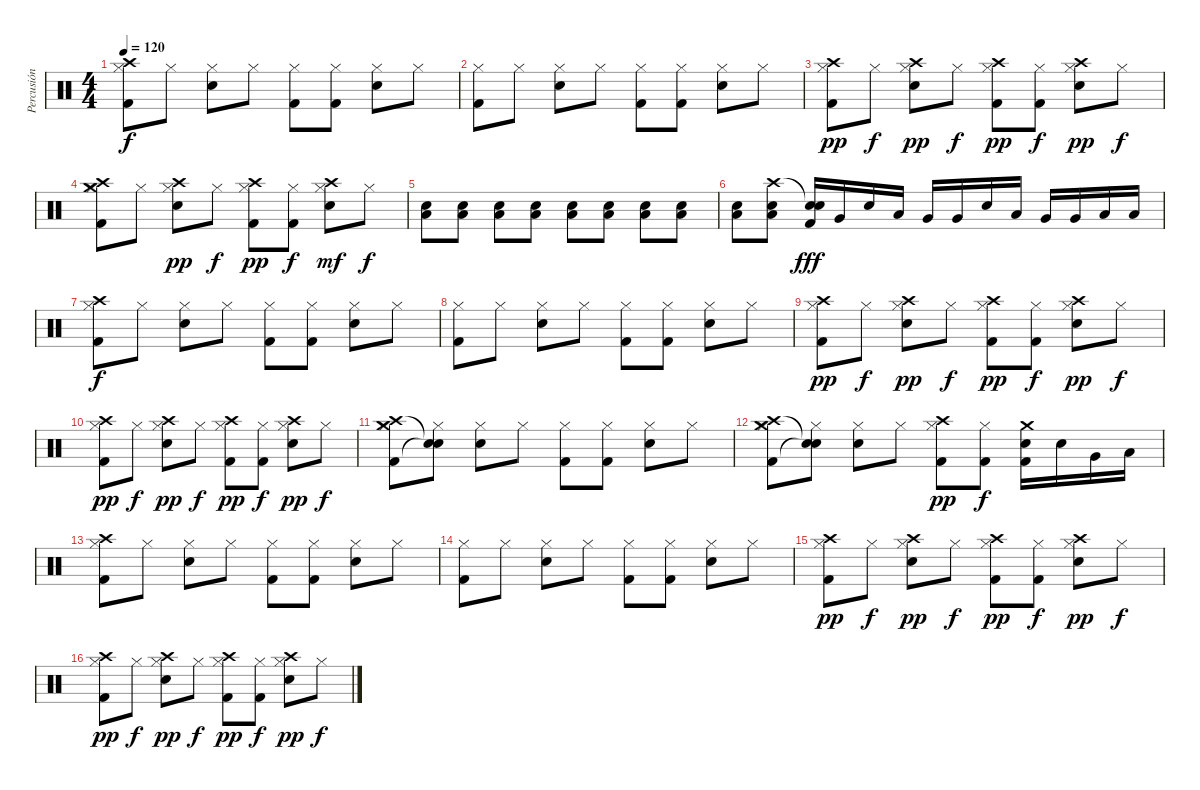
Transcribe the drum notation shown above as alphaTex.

\track ("Percusión" "Percusión") {instrument percussion}
\staff {score}
\articulation defaults
\ts (4 4)
\tempo 120
\clef neutral
\ks c
("Hi-Hat (closed)" "Kick (hit) 2" "Crash high (hit)").8{dy f} "Hi-Hat (closed)".8 ("Hi-Hat (closed)" "Electric Snare (hit)").8 "Hi-Hat (closed)".8 ("Hi-Hat (closed)" "Kick (hit) 2").8 ("Hi-Hat (closed)" "Kick (hit) 2").8 ("Hi-Hat (closed)" "Electric Snare (hit)").8 "Hi-Hat (closed)".8 |
("Hi-Hat (closed)" "Kick (hit) 2").8 "Hi-Hat (closed)".8 ("Hi-Hat (closed)" "Electric Snare (hit)").8 "Hi-Hat (closed)".8 ("Hi-Hat (closed)" "Kick (hit) 2").8 ("Hi-Hat (closed)" "Kick (hit) 2").8 ("Hi-Hat (closed)" "Electric Snare (hit)").8 "Hi-Hat (closed)".8 |
("Hi-Hat (closed)" "Kick (hit) 2" "Crash high (hit)").8{dy pp} "Hi-Hat (closed)".8{dy f} ("Hi-Hat (closed)" "Electric Snare (hit)" "Crash high (hit)").8{dy pp} "Hi-Hat (closed)".8{dy f} ("Hi-Hat (closed)" "Kick (hit) 2" "Crash high (hit)").8{dy pp} ("Hi-Hat (closed)" "Kick (hit) 2").8{dy f} ("Hi-Hat (closed)" "Electric Snare (hit)" "Crash high (hit)").8{dy pp} "Hi-Hat (closed)".8{dy f} |
("Hi-Hat (closed)" "Kick (hit) 2" "Crash high (hit)" "Crash medium (hit)").8 "Hi-Hat (closed)".8 ("Hi-Hat (closed)" "Electric Snare (hit)" "Crash high (hit)").8{dy pp} "Hi-Hat (closed)".8{dy f} ("Hi-Hat (closed)" "Kick (hit) 2" "Crash high (hit)").8{dy pp} ("Hi-Hat (closed)" "Kick (hit) 2").8{dy f} ("Hi-Hat (closed)" "Electric Snare (hit)" "Crash high (hit)").8{dy mf} "Hi-Hat (closed)".8{dy f} |
("Low Floor Tom (hit)" "Electric Snare (hit)").8 ("Low Floor Tom (hit)" "Electric Snare (hit)").8 ("Low Floor Tom (hit)" "Electric Snare (hit)").8 ("Low Floor Tom (hit)" "Electric Snare (hit)").8 ("Low Floor Tom (hit)" "Electric Snare (hit)").8 ("Low Floor Tom (hit)" "Electric Snare (hit)").8 ("Low Floor Tom (hit)" "Electric Snare (hit)").8 ("Low Floor Tom (hit)" "Electric Snare (hit)").8 |
("Low Floor Tom (hit)" "Electric Snare (hit)").8 ("Low Floor Tom (hit)" "Electric Snare (hit)" "Crash high (hit)").8 ("Electric Snare (hit)" "Kick (hit) 2" "Snare (hit)"{t}).16{dy fff} "Very Low Tom (hit)".16 "Electric Snare (hit)".16 "Low Floor Tom (hit)".16 "Very Low Tom (hit)".16 "Very Low Tom (hit)".16 "Electric Snare (hit)".16 "Low Floor Tom (hit)".16 "Very Low Tom (hit)".16 "Very Low Tom (hit)".16 "Low Floor Tom (hit)".16 "Low Tom (hit)".16 |
("Hi-Hat (closed)" "Kick (hit) 2" "Crash high (hit)").8{dy f} "Hi-Hat (closed)".8 ("Hi-Hat (closed)" "Electric Snare (hit)").8 "Hi-Hat (closed)".8 ("Hi-Hat (closed)" "Kick (hit) 2").8 ("Hi-Hat (closed)" "Kick (hit) 2").8 ("Hi-Hat (closed)" "Electric Snare (hit)").8 "Hi-Hat (closed)".8 |
("Hi-Hat (closed)" "Kick (hit) 2").8 "Hi-Hat (closed)".8 ("Hi-Hat (closed)" "Electric Snare (hit)").8 "Hi-Hat (closed)".8 ("Hi-Hat (closed)" "Kick (hit) 2").8 ("Hi-Hat (closed)" "Kick (hit) 2").8 ("Hi-Hat (closed)" "Electric Snare (hit)").8 "Hi-Hat (closed)".8 |
("Hi-Hat (closed)" "Kick (hit) 2" "Crash high (hit)").8{dy pp} "Hi-Hat (closed)".8{dy f} ("Hi-Hat (closed)" "Electric Snare (hit)" "Crash high (hit)").8{dy pp} "Hi-Hat (closed)".8{dy f} ("Hi-Hat (closed)" "Kick (hit) 2" "Crash high (hit)").8{dy pp} ("Hi-Hat (closed)" "Kick (hit) 2").8{dy f} ("Hi-Hat (closed)" "Electric Snare (hit)" "Crash high (hit)").8{dy pp} "Hi-Hat (closed)".8{dy f} |
("Hi-Hat (closed)" "Kick (hit) 2" "Crash high (hit)").8{dy pp} "Hi-Hat (closed)".8{dy f} ("Hi-Hat (closed)" "Electric Snare (hit)" "Crash high (hit)").8{dy pp} "Hi-Hat (closed)".8{dy f} ("Hi-Hat (closed)" "Kick (hit) 2" "Crash high (hit)").8{dy pp} ("Hi-Hat (closed)" "Kick (hit) 2").8{dy f} ("Hi-Hat (closed)" "Electric Snare (hit)" "Crash high (hit)").8{dy pp} "Hi-Hat (closed)".8{dy f} |
("Hi-Hat (closed)" "Kick (hit) 2" "Crash high (hit)" "Crash medium (hit)").8 ("Hi-Hat (closed)" "Snare (hit)"{t} "Snare (hit)"{t}).8 ("Hi-Hat (closed)" "Electric Snare (hit)").8 "Hi-Hat (closed)".8 ("Hi-Hat (closed)" "Kick (hit) 2").8 ("Hi-Hat (closed)" "Kick (hit) 2").8 ("Hi-Hat (closed)" "Electric Snare (hit)").8 "Hi-Hat (closed)".8 |
("Hi-Hat (closed)" "Kick (hit) 2" "Crash high (hit)" "Crash medium (hit)").8 ("Hi-Hat (closed)" "Snare (hit)"{t} "Snare (hit)"{t}).8 ("Hi-Hat (closed)" "Electric Snare (hit)").8 "Hi-Hat (closed)".8 ("Hi-Hat (closed)" "Kick (hit) 2" "Crash high (hit)").8{dy pp} ("Hi-Hat (closed)" "Kick (hit) 2").8{dy f} ("Electric Snare (hit)" "Kick (hit) 2" "Crash medium (hit)").16 "Electric Snare (hit)".16 "Very Low Tom (hit)".16 "Low Floor Tom (hit)".16 |
("Hi-Hat (closed)" "Kick (hit) 2" "Crash high (hit)").8 "Hi-Hat (closed)".8 ("Hi-Hat (closed)" "Electric Snare (hit)").8 "Hi-Hat (closed)".8 ("Hi-Hat (closed)" "Kick (hit) 2").8 ("Hi-Hat (closed)" "Kick (hit) 2").8 ("Hi-Hat (closed)" "Electric Snare (hit)").8 "Hi-Hat (closed)".8 |
("Hi-Hat (closed)" "Kick (hit) 2").8 "Hi-Hat (closed)".8 ("Hi-Hat (closed)" "Electric Snare (hit)").8 "Hi-Hat (closed)".8 ("Hi-Hat (closed)" "Kick (hit) 2").8 ("Hi-Hat (closed)" "Kick (hit) 2").8 ("Hi-Hat (closed)" "Electric Snare (hit)").8 "Hi-Hat (closed)".8 |
("Hi-Hat (closed)" "Kick (hit) 2" "Crash high (hit)").8{dy pp} "Hi-Hat (closed)".8{dy f} ("Hi-Hat (closed)" "Electric Snare (hit)" "Crash high (hit)").8{dy pp} "Hi-Hat (closed)".8{dy f} ("Hi-Hat (closed)" "Kick (hit) 2" "Crash high (hit)").8{dy pp} ("Hi-Hat (closed)" "Kick (hit) 2").8{dy f} ("Hi-Hat (closed)" "Electric Snare (hit)" "Crash high (hit)").8{dy pp} "Hi-Hat (closed)".8{dy f} |
("Hi-Hat (closed)" "Kick (hit) 2" "Crash high (hit)").8{dy pp} "Hi-Hat (closed)".8{dy f} ("Hi-Hat (closed)" "Electric Snare (hit)" "Crash high (hit)").8{dy pp} "Hi-Hat (closed)".8{dy f} ("Hi-Hat (closed)" "Kick (hit) 2" "Crash high (hit)").8{dy pp} ("Hi-Hat (closed)" "Kick (hit) 2").8{dy f} ("Hi-Hat (closed)" "Electric Snare (hit)" "Crash high (hit)").8{dy pp} "Hi-Hat (closed)".8{dy f}
